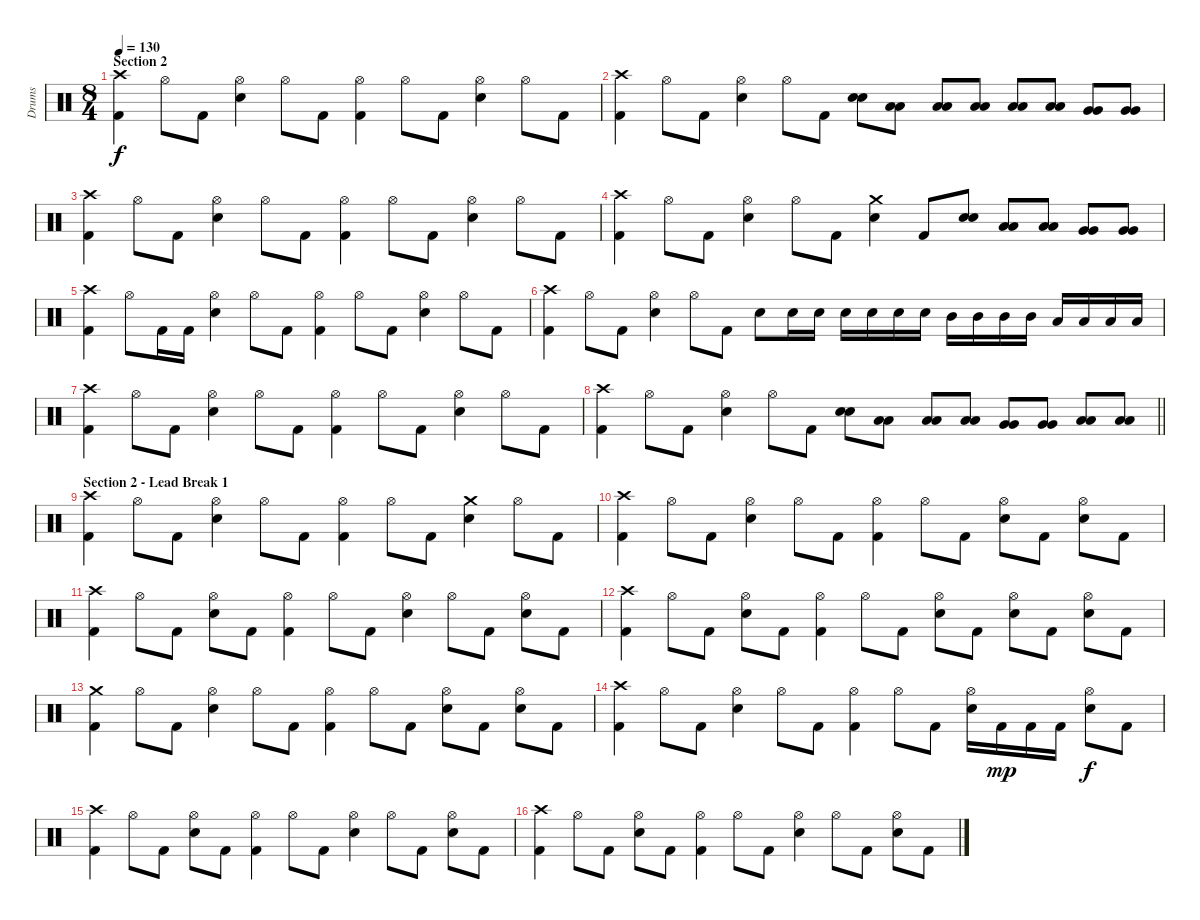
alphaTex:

\track ("Drums" "Drums") {instrument percussion}
\staff {score}
\articulation defaults
\ts (8 4)
\section ("" "Section 2")
\tempo 130
\clef neutral
\ks c
("Crash high (hit)" "Kick (hit) 2").4{dy f} "Hi-Hat (open)".8 "Kick (hit) 2".8 ("Hi-Hat (open)" "Electric Snare (hit)").4 "Hi-Hat (open)".8 "Kick (hit) 2".8 ("Hi-Hat (open)" "Kick (hit) 2").4 "Hi-Hat (open)".8 "Kick (hit) 2".8 ("Hi-Hat (open)" "Electric Snare (hit)").4 "Hi-Hat (open)".8 "Kick (hit) 2".8 |
("Crash high (hit)" "Kick (hit) 2").4 "Hi-Hat (open)".8 "Kick (hit) 2".8 ("Hi-Hat (open)" "Electric Snare (hit)").4 "Hi-Hat (open)".8 "Kick (hit) 2".8 ("Electric Snare (hit)" "Electric Snare (hit)").8{bu 60} ("Low Tom (hit)" "Low Tom (hit)").8 ("Low Tom (hit)" "Low Tom (hit)").8 ("Low Tom (hit)" "Low Tom (hit)").8{bu 60} ("Low Tom (hit)" "Low Tom (hit)").8 ("Low Tom (hit)" "Low Tom (hit)").8 ("Very Low Tom (hit)" "Very Low Tom (hit)").8 ("Very Low Tom (hit)" "Very Low Tom (hit)").8 |
("Crash high (hit)" "Kick (hit) 2").4 "Hi-Hat (open)".8 "Kick (hit) 2".8 ("Hi-Hat (open)" "Electric Snare (hit)").4 "Hi-Hat (open)".8 "Kick (hit) 2".8 ("Hi-Hat (open)" "Kick (hit) 2").4 "Hi-Hat (open)".8 "Kick (hit) 2".8 ("Hi-Hat (open)" "Electric Snare (hit)").4 "Hi-Hat (open)".8 "Kick (hit) 2".8 |
("Crash high (hit)" "Kick (hit) 2").4 "Hi-Hat (open)".8 "Kick (hit) 2".8 ("Hi-Hat (open)" "Electric Snare (hit)").4 "Hi-Hat (open)".8 "Kick (hit) 2".8 ("Crash medium (hit)" "Electric Snare (hit)").4 "Kick (hit) 2".8 ("Electric Snare (hit)" "Electric Snare (hit)").8{bu 60} ("Low Tom (hit)" "Low Tom (hit)").8{bu 60} ("Low Tom (hit)" "Low Tom (hit)").8{bu 60} ("Very Low Tom (hit)" "Very Low Tom (hit)").8{bu 60} ("Very Low Tom (hit)" "Very Low Tom (hit)").8{bu 60} |
("Crash high (hit)" "Kick (hit) 2").4 "Hi-Hat (open)".8 "Kick (hit) 2".16 "Kick (hit) 2".16 ("Hi-Hat (open)" "Electric Snare (hit)").4 "Hi-Hat (open)".8 "Kick (hit) 2".8 ("Hi-Hat (open)" "Kick (hit) 2").4 "Hi-Hat (open)".8 "Kick (hit) 2".8 ("Hi-Hat (open)" "Electric Snare (hit)").4 "Hi-Hat (open)".8 "Kick (hit) 2".8 |
("Crash high (hit)" "Kick (hit) 2").4 "Hi-Hat (open)".8 "Kick (hit) 2".8 ("Hi-Hat (open)" "Electric Snare (hit)").4 "Hi-Hat (open)".8 "Kick (hit) 2".8 "Electric Snare (hit)".8 "Electric Snare (hit)".16 "Electric Snare (hit)".16 "Electric Snare (hit)".16 "Electric Snare (hit)".16 "Electric Snare (hit)".16 "Electric Snare (hit)".16 "Mid Tom (hit)".16 "Mid Tom (hit)".16 "Mid Tom (hit)".16 "Mid Tom (hit)".16 "Low Tom (hit)".16 "Low Tom (hit)".16 "Low Tom (hit)".16 "Low Tom (hit)".16 |
("Crash high (hit)" "Kick (hit) 2").4 "Hi-Hat (open)".8 "Kick (hit) 2".8 ("Hi-Hat (open)" "Electric Snare (hit)").4 "Hi-Hat (open)".8 "Kick (hit) 2".8 ("Hi-Hat (open)" "Kick (hit) 2").4 "Hi-Hat (open)".8 "Kick (hit) 2".8 ("Hi-Hat (open)" "Electric Snare (hit)").4 "Hi-Hat (open)".8 "Kick (hit) 2".8 |
\barLineRight lightlight
("Crash high (hit)" "Kick (hit) 2").4 "Hi-Hat (open)".8 "Kick (hit) 2".8 ("Hi-Hat (open)" "Electric Snare (hit)").4 "Hi-Hat (open)".8 "Kick (hit) 2".8 ("Electric Snare (hit)" "Electric Snare (hit)").8{bu 60} ("Low Tom (hit)" "Low Tom (hit)").8 ("Low Tom (hit)" "Low Tom (hit)").8 ("Low Tom (hit)" "Low Tom (hit)").8{bu 60} ("Very Low Tom (hit)" "Very Low Tom (hit)").8 ("Very Low Tom (hit)" "Very Low Tom (hit)").8 ("Low Floor Tom (hit)" "Low Floor Tom (hit)").8 ("Low Floor Tom (hit)" "Low Floor Tom (hit)").8 |
\section ("" "Section 2 - Lead Break 1")
("Crash high (hit)" "Kick (hit) 2").4 "Hi-Hat (open)".8 "Kick (hit) 2".8 ("Hi-Hat (open)" "Electric Snare (hit)").4 "Hi-Hat (open)".8 "Kick (hit) 2".8 ("Hi-Hat (open)" "Kick (hit) 2").4 "Hi-Hat (open)".8 "Kick (hit) 2".8 ("Crash medium (hit)" "Electric Snare (hit)").4 "Hi-Hat (open)".8 "Kick (hit) 2".8 |
("Crash high (hit)" "Kick (hit) 2").4 "Hi-Hat (open)".8 "Kick (hit) 2".8 ("Hi-Hat (open)" "Electric Snare (hit)").4 "Hi-Hat (open)".8 "Kick (hit) 2".8 ("Hi-Hat (open)" "Kick (hit) 2").4 "Hi-Hat (open)".8 "Kick (hit) 2".8 ("Hi-Hat (open)" "Electric Snare (hit)").8 "Kick (hit) 2".8 ("Hi-Hat (open)" "Electric Snare (hit)").8 "Kick (hit) 2".8 |
("Crash high (hit)" "Kick (hit) 2").4 "Hi-Hat (open)".8 "Kick (hit) 2".8 ("Hi-Hat (open)" "Electric Snare (hit)").8 "Kick (hit) 2".8 ("Hi-Hat (open)" "Kick (hit) 2").4 "Hi-Hat (open)".8 "Kick (hit) 2".8 ("Hi-Hat (open)" "Electric Snare (hit)").4 "Hi-Hat (open)".8 "Kick (hit) 2".8 ("Hi-Hat (open)" "Electric Snare (hit)").8 "Kick (hit) 2".8 |
("Crash high (hit)" "Kick (hit) 2").4 "Hi-Hat (open)".8 "Kick (hit) 2".8 ("Hi-Hat (open)" "Electric Snare (hit)").8 "Kick (hit) 2".8 ("Hi-Hat (open)" "Kick (hit) 2").4 "Hi-Hat (open)".8 "Kick (hit) 2".8 ("Hi-Hat (open)" "Electric Snare (hit)").8 "Kick (hit) 2".8 ("Hi-Hat (open)" "Electric Snare (hit)").8 "Kick (hit) 2".8 ("Hi-Hat (open)" "Electric Snare (hit)").8 "Kick (hit) 2".8 |
("Crash medium (hit)" "Kick (hit) 2").4 "Hi-Hat (open)".8 "Kick (hit) 2".8 ("Hi-Hat (open)" "Electric Snare (hit)").4 "Hi-Hat (open)".8 "Kick (hit) 2".8 ("Hi-Hat (open)" "Kick (hit) 2").4 "Hi-Hat (open)".8 "Kick (hit) 2".8 ("Hi-Hat (open)" "Electric Snare (hit)").8 "Kick (hit) 2".8 ("Hi-Hat (open)" "Electric Snare (hit)").8 "Kick (hit) 2".8 |
("Crash high (hit)" "Kick (hit) 2").4 "Hi-Hat (open)".8 "Kick (hit) 2".8 ("Hi-Hat (open)" "Electric Snare (hit)").4 "Hi-Hat (open)".8 "Kick (hit) 2".8 ("Hi-Hat (open)" "Kick (hit) 2").4 "Hi-Hat (open)".8 "Kick (hit) 2".8 ("Hi-Hat (open)" "Electric Snare (hit)").16 "Kick (hit) 2".16{dy mp} "Kick (hit) 2".16 "Kick (hit) 2".16 ("Hi-Hat (open)" "Electric Snare (hit)").8{dy f} "Kick (hit) 2".8 |
("Crash high (hit)" "Kick (hit) 2").4 "Hi-Hat (open)".8 "Kick (hit) 2".8 ("Hi-Hat (open)" "Electric Snare (hit)").8 "Kick (hit) 2".8 ("Hi-Hat (open)" "Kick (hit) 2").4 "Hi-Hat (open)".8 "Kick (hit) 2".8 ("Hi-Hat (open)" "Electric Snare (hit)").4 "Hi-Hat (open)".8 "Kick (hit) 2".8 ("Hi-Hat (open)" "Electric Snare (hit)").8 "Kick (hit) 2".8 |
("Crash high (hit)" "Kick (hit) 2").4 "Hi-Hat (open)".8 "Kick (hit) 2".8 ("Hi-Hat (open)" "Electric Snare (hit)").8 "Kick (hit) 2".8 ("Hi-Hat (open)" "Kick (hit) 2").4 "Hi-Hat (open)".8 "Kick (hit) 2".8 ("Hi-Hat (open)" "Electric Snare (hit)").4 "Hi-Hat (open)".8 "Kick (hit) 2".8 ("Hi-Hat (open)" "Electric Snare (hit)").8 "Kick (hit) 2".8
